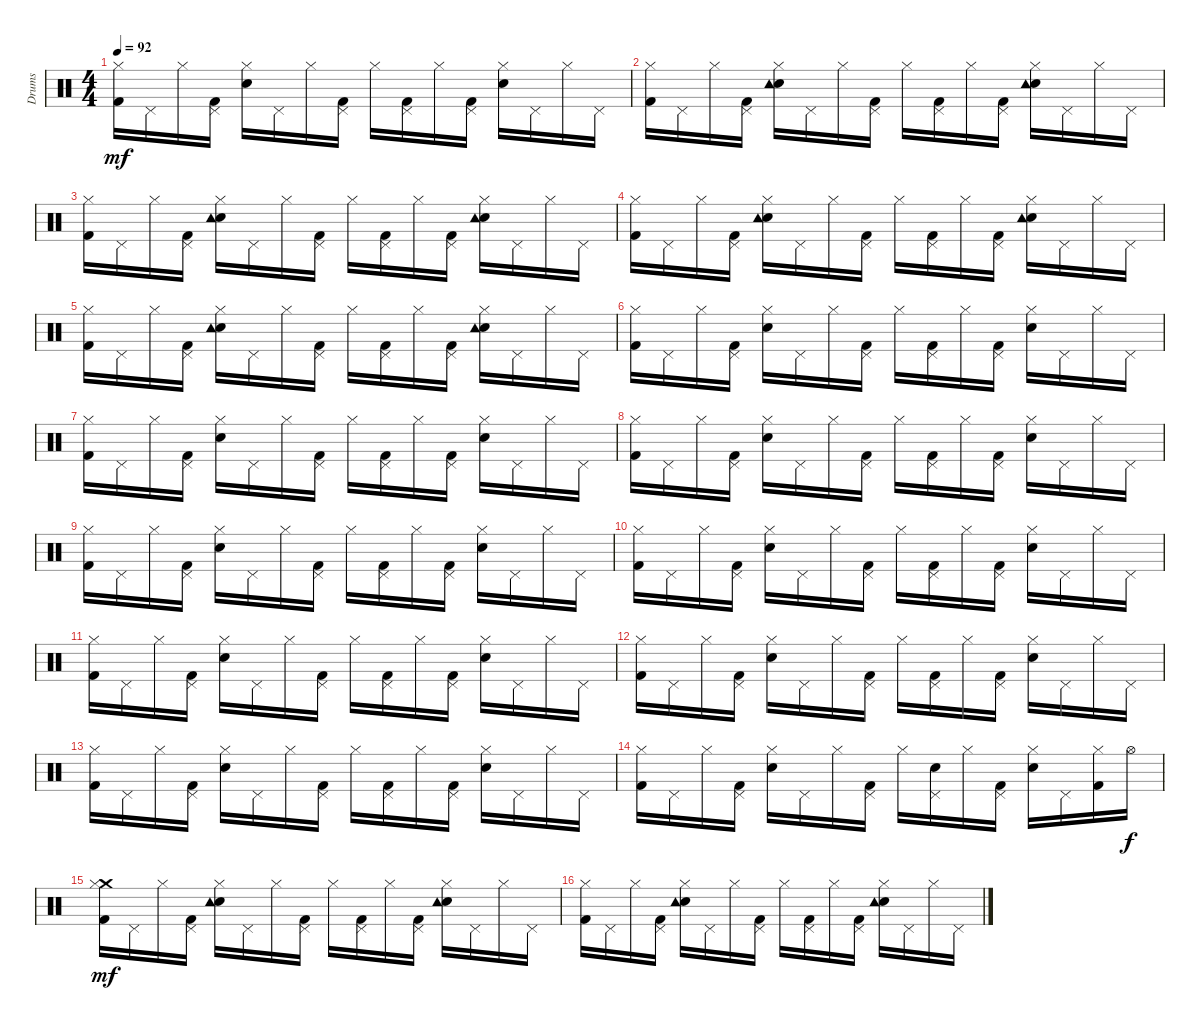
\track ("Drums" "Drums") {instrument percussion}
\staff {score}
\articulation defaults
\ts (4 4)
\tempo 92
\clef neutral
\ks c
("Kick (hit) 2" "Hi-Hat (closed)").16{dy mf} "Pedal Hi-Hat (hit)".16 "Hi-Hat (closed)".16 ("Kick (hit) 2" "Pedal Hi-Hat (hit)").16 ("Electric Snare (hit)" "Hi-Hat (closed)").16 "Pedal Hi-Hat (hit)".16 "Hi-Hat (closed)".16 ("Kick (hit) 2" "Pedal Hi-Hat (hit)").16 "Hi-Hat (closed)".16 ("Kick (hit) 2" "Pedal Hi-Hat (hit)").16 "Hi-Hat (closed)".16 ("Kick (hit) 2" "Pedal Hi-Hat (hit)").16 ("Electric Snare (hit)" "Hi-Hat (closed)").16 "Pedal Hi-Hat (hit)".16 "Hi-Hat (closed)".16 "Pedal Hi-Hat (hit)".16 |
("Kick (hit) 2" "Hi-Hat (closed)").16 "Pedal Hi-Hat (hit)".16 "Hi-Hat (closed)".16 ("Kick (hit) 2" "Pedal Hi-Hat (hit)").16 ("Electric Snare (hit)" "Hi-Hat (closed)" "Tambourine (hit)").16 "Pedal Hi-Hat (hit)".16 "Hi-Hat (closed)".16 ("Kick (hit) 2" "Pedal Hi-Hat (hit)").16 "Hi-Hat (closed)".16 ("Kick (hit) 2" "Pedal Hi-Hat (hit)").16 "Hi-Hat (closed)".16 ("Kick (hit) 2" "Pedal Hi-Hat (hit)").16 ("Electric Snare (hit)" "Hi-Hat (closed)" "Tambourine (hit)").16 "Pedal Hi-Hat (hit)".16 "Hi-Hat (closed)".16 "Pedal Hi-Hat (hit)".16 |
("Kick (hit) 2" "Hi-Hat (closed)").16 "Pedal Hi-Hat (hit)".16 "Hi-Hat (closed)".16 ("Kick (hit) 2" "Pedal Hi-Hat (hit)").16 ("Electric Snare (hit)" "Hi-Hat (closed)" "Tambourine (hit)").16 "Pedal Hi-Hat (hit)".16 "Hi-Hat (closed)".16 ("Kick (hit) 2" "Pedal Hi-Hat (hit)").16 "Hi-Hat (closed)".16 ("Kick (hit) 2" "Pedal Hi-Hat (hit)").16 "Hi-Hat (closed)".16 ("Kick (hit) 2" "Pedal Hi-Hat (hit)").16 ("Electric Snare (hit)" "Hi-Hat (closed)" "Tambourine (hit)").16 "Pedal Hi-Hat (hit)".16 "Hi-Hat (closed)".16 "Pedal Hi-Hat (hit)".16 |
("Kick (hit) 2" "Hi-Hat (closed)").16 "Pedal Hi-Hat (hit)".16 "Hi-Hat (closed)".16 ("Kick (hit) 2" "Pedal Hi-Hat (hit)").16 ("Electric Snare (hit)" "Hi-Hat (closed)" "Tambourine (hit)").16 "Pedal Hi-Hat (hit)".16 "Hi-Hat (closed)".16 ("Kick (hit) 2" "Pedal Hi-Hat (hit)").16 "Hi-Hat (closed)".16 ("Kick (hit) 2" "Pedal Hi-Hat (hit)").16 "Hi-Hat (closed)".16 ("Kick (hit) 2" "Pedal Hi-Hat (hit)").16 ("Electric Snare (hit)" "Hi-Hat (closed)" "Tambourine (hit)").16 "Pedal Hi-Hat (hit)".16 "Hi-Hat (closed)".16 "Pedal Hi-Hat (hit)".16 |
("Kick (hit) 2" "Hi-Hat (closed)").16 "Pedal Hi-Hat (hit)".16 "Hi-Hat (closed)".16 ("Kick (hit) 2" "Pedal Hi-Hat (hit)").16 ("Electric Snare (hit)" "Hi-Hat (closed)" "Tambourine (hit)").16 "Pedal Hi-Hat (hit)".16 "Hi-Hat (closed)".16 ("Kick (hit) 2" "Pedal Hi-Hat (hit)").16 "Hi-Hat (closed)".16 ("Kick (hit) 2" "Pedal Hi-Hat (hit)").16 "Hi-Hat (closed)".16 ("Kick (hit) 2" "Pedal Hi-Hat (hit)").16 ("Electric Snare (hit)" "Hi-Hat (closed)" "Tambourine (hit)").16 "Pedal Hi-Hat (hit)".16 "Hi-Hat (closed)".16 "Pedal Hi-Hat (hit)".16 |
("Kick (hit) 2" "Hi-Hat (closed)").16 "Pedal Hi-Hat (hit)".16 "Hi-Hat (closed)".16 ("Kick (hit) 2" "Pedal Hi-Hat (hit)").16 ("Electric Snare (hit)" "Hi-Hat (closed)").16 "Pedal Hi-Hat (hit)".16 "Hi-Hat (closed)".16 ("Kick (hit) 2" "Pedal Hi-Hat (hit)").16 "Hi-Hat (closed)".16 ("Kick (hit) 2" "Pedal Hi-Hat (hit)").16 "Hi-Hat (closed)".16 ("Kick (hit) 2" "Pedal Hi-Hat (hit)").16 ("Electric Snare (hit)" "Hi-Hat (closed)").16 "Pedal Hi-Hat (hit)".16 "Hi-Hat (closed)".16 "Pedal Hi-Hat (hit)".16 |
("Kick (hit) 2" "Hi-Hat (closed)").16 "Pedal Hi-Hat (hit)".16 "Hi-Hat (closed)".16 ("Kick (hit) 2" "Pedal Hi-Hat (hit)").16 ("Electric Snare (hit)" "Hi-Hat (closed)").16 "Pedal Hi-Hat (hit)".16 "Hi-Hat (closed)".16 ("Kick (hit) 2" "Pedal Hi-Hat (hit)").16 "Hi-Hat (closed)".16 ("Kick (hit) 2" "Pedal Hi-Hat (hit)").16 "Hi-Hat (closed)".16 ("Kick (hit) 2" "Pedal Hi-Hat (hit)").16 ("Electric Snare (hit)" "Hi-Hat (closed)").16 "Pedal Hi-Hat (hit)".16 "Hi-Hat (closed)".16 "Pedal Hi-Hat (hit)".16 |
("Kick (hit) 2" "Hi-Hat (closed)").16 "Pedal Hi-Hat (hit)".16 "Hi-Hat (closed)".16 ("Kick (hit) 2" "Pedal Hi-Hat (hit)").16 ("Electric Snare (hit)" "Hi-Hat (closed)").16 "Pedal Hi-Hat (hit)".16 "Hi-Hat (closed)".16 ("Kick (hit) 2" "Pedal Hi-Hat (hit)").16 "Hi-Hat (closed)".16 ("Kick (hit) 2" "Pedal Hi-Hat (hit)").16 "Hi-Hat (closed)".16 ("Kick (hit) 2" "Pedal Hi-Hat (hit)").16 ("Electric Snare (hit)" "Hi-Hat (closed)").16 "Pedal Hi-Hat (hit)".16 "Hi-Hat (closed)".16 "Pedal Hi-Hat (hit)".16 |
("Kick (hit) 2" "Hi-Hat (closed)").16 "Pedal Hi-Hat (hit)".16 "Hi-Hat (closed)".16 ("Kick (hit) 2" "Pedal Hi-Hat (hit)").16 ("Electric Snare (hit)" "Hi-Hat (closed)").16 "Pedal Hi-Hat (hit)".16 "Hi-Hat (closed)".16 ("Kick (hit) 2" "Pedal Hi-Hat (hit)").16 "Hi-Hat (closed)".16 ("Kick (hit) 2" "Pedal Hi-Hat (hit)").16 "Hi-Hat (closed)".16 ("Kick (hit) 2" "Pedal Hi-Hat (hit)").16 ("Electric Snare (hit)" "Hi-Hat (closed)").16 "Pedal Hi-Hat (hit)".16 "Hi-Hat (closed)".16 "Pedal Hi-Hat (hit)".16 |
("Kick (hit) 2" "Hi-Hat (closed)").16 "Pedal Hi-Hat (hit)".16 "Hi-Hat (closed)".16 ("Kick (hit) 2" "Pedal Hi-Hat (hit)").16 ("Electric Snare (hit)" "Hi-Hat (closed)").16 "Pedal Hi-Hat (hit)".16 "Hi-Hat (closed)".16 ("Kick (hit) 2" "Pedal Hi-Hat (hit)").16 "Hi-Hat (closed)".16 ("Kick (hit) 2" "Pedal Hi-Hat (hit)").16 "Hi-Hat (closed)".16 ("Kick (hit) 2" "Pedal Hi-Hat (hit)").16 ("Electric Snare (hit)" "Hi-Hat (closed)").16 "Pedal Hi-Hat (hit)".16 "Hi-Hat (closed)".16 "Pedal Hi-Hat (hit)".16 |
("Kick (hit) 2" "Hi-Hat (closed)").16 "Pedal Hi-Hat (hit)".16 "Hi-Hat (closed)".16 ("Kick (hit) 2" "Pedal Hi-Hat (hit)").16 ("Electric Snare (hit)" "Hi-Hat (closed)").16 "Pedal Hi-Hat (hit)".16 "Hi-Hat (closed)".16 ("Kick (hit) 2" "Pedal Hi-Hat (hit)").16 "Hi-Hat (closed)".16 ("Kick (hit) 2" "Pedal Hi-Hat (hit)").16 "Hi-Hat (closed)".16 ("Kick (hit) 2" "Pedal Hi-Hat (hit)").16 ("Electric Snare (hit)" "Hi-Hat (closed)").16 "Pedal Hi-Hat (hit)".16 "Hi-Hat (closed)".16 "Pedal Hi-Hat (hit)".16 |
("Kick (hit) 2" "Hi-Hat (closed)").16 "Pedal Hi-Hat (hit)".16 "Hi-Hat (closed)".16 ("Kick (hit) 2" "Pedal Hi-Hat (hit)").16 ("Electric Snare (hit)" "Hi-Hat (closed)").16 "Pedal Hi-Hat (hit)".16 "Hi-Hat (closed)".16 ("Kick (hit) 2" "Pedal Hi-Hat (hit)").16 "Hi-Hat (closed)".16 ("Kick (hit) 2" "Pedal Hi-Hat (hit)").16 "Hi-Hat (closed)".16 ("Kick (hit) 2" "Pedal Hi-Hat (hit)").16 ("Electric Snare (hit)" "Hi-Hat (closed)").16 "Pedal Hi-Hat (hit)".16 "Hi-Hat (closed)".16 "Pedal Hi-Hat (hit)".16 |
("Kick (hit) 2" "Hi-Hat (closed)").16 "Pedal Hi-Hat (hit)".16 "Hi-Hat (closed)".16 ("Kick (hit) 2" "Pedal Hi-Hat (hit)").16 ("Electric Snare (hit)" "Hi-Hat (closed)").16 "Pedal Hi-Hat (hit)".16 "Hi-Hat (closed)".16 ("Kick (hit) 2" "Pedal Hi-Hat (hit)").16 "Hi-Hat (closed)".16 ("Kick (hit) 2" "Pedal Hi-Hat (hit)").16 "Hi-Hat (closed)".16 ("Kick (hit) 2" "Pedal Hi-Hat (hit)").16 ("Electric Snare (hit)" "Hi-Hat (closed)").16 "Pedal Hi-Hat (hit)".16 "Hi-Hat (closed)".16 "Pedal Hi-Hat (hit)".16 |
("Kick (hit) 2" "Hi-Hat (closed)").16 "Pedal Hi-Hat (hit)".16 "Hi-Hat (closed)".16 ("Kick (hit) 2" "Pedal Hi-Hat (hit)").16 ("Electric Snare (hit)" "Hi-Hat (closed)").16 "Pedal Hi-Hat (hit)".16 "Hi-Hat (closed)".16 ("Kick (hit) 2" "Pedal Hi-Hat (hit)").16 "Hi-Hat (closed)".16 ("Electric Snare (hit)" "Pedal Hi-Hat (hit)").16 "Hi-Hat (closed)".16 ("Kick (hit) 2" "Pedal Hi-Hat (hit)").16 ("Electric Snare (hit)" "Hi-Hat (closed)").16 "Pedal Hi-Hat (hit)".16 ("Kick (hit) 2" "Hi-Hat (closed)").16 "Hi-Hat (open)".16{dy f} |
("Crash medium (hit)" "Kick (hit) 2" "Hi-Hat (closed)").16{dy mf} "Pedal Hi-Hat (hit)".16 "Hi-Hat (closed)".16 ("Kick (hit) 2" "Pedal Hi-Hat (hit)").16 ("Electric Snare (hit)" "Hi-Hat (closed)" "Tambourine (hit)").16 "Pedal Hi-Hat (hit)".16 "Hi-Hat (closed)".16 ("Kick (hit) 2" "Pedal Hi-Hat (hit)").16 "Hi-Hat (closed)".16 ("Kick (hit) 2" "Pedal Hi-Hat (hit)").16 "Hi-Hat (closed)".16 ("Kick (hit) 2" "Pedal Hi-Hat (hit)").16 ("Electric Snare (hit)" "Hi-Hat (closed)" "Tambourine (hit)").16 "Pedal Hi-Hat (hit)".16 "Hi-Hat (closed)".16 "Pedal Hi-Hat (hit)".16 |
("Kick (hit) 2" "Hi-Hat (closed)").16 "Pedal Hi-Hat (hit)".16 "Hi-Hat (closed)".16 ("Kick (hit) 2" "Pedal Hi-Hat (hit)").16 ("Electric Snare (hit)" "Hi-Hat (closed)" "Tambourine (hit)").16 "Pedal Hi-Hat (hit)".16 "Hi-Hat (closed)".16 ("Kick (hit) 2" "Pedal Hi-Hat (hit)").16 "Hi-Hat (closed)".16 ("Kick (hit) 2" "Pedal Hi-Hat (hit)").16 "Hi-Hat (closed)".16 ("Kick (hit) 2" "Pedal Hi-Hat (hit)").16 ("Electric Snare (hit)" "Hi-Hat (closed)" "Tambourine (hit)").16 "Pedal Hi-Hat (hit)".16 "Hi-Hat (closed)".16 "Pedal Hi-Hat (hit)".16
